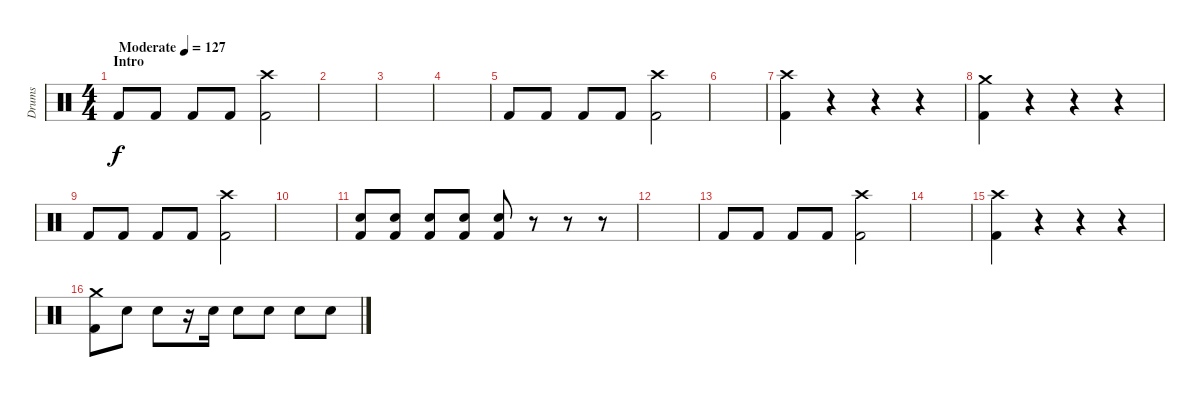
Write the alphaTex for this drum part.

\track ("Drums" "Drums") {instrument percussion}
\staff {score}
\articulation defaults
\ts (4 4)
\section ("" "Intro")
\tempo (127 "Moderate")
\clef neutral
\ks c "Kick (hit) 2".8{dy f} "Kick (hit) 2".8 "Kick (hit) 2".8 "Kick (hit) 2".8
("Crash high (hit)" "Kick (hit) 2").2 |
|
|
|
"Kick (hit) 2".8 "Kick (hit) 2".8 "Kick (hit) 2".8 "Kick (hit) 2".8 ("Crash high (hit)" "Kick (hit) 2").2 |
|
("Crash high (hit)" "Kick (hit) 2").4 r.4 r.4 r.4 |
("Crash medium (hit)" "Kick (hit) 2").4 r.4 r.4 r.4 |
"Kick (hit) 2".8 "Kick (hit) 2".8 "Kick (hit) 2".8 "Kick (hit) 2".8 ("Crash high (hit)" "Kick (hit) 2").2 |
|
("Electric Snare (hit)" "Kick (hit) 2").8 ("Electric Snare (hit)" "Kick (hit) 2").8 ("Electric Snare (hit)" "Kick (hit) 2").8 ("Electric Snare (hit)" "Kick (hit) 2").8 ("Electric Snare (hit)" "Kick (hit) 2").8 r.8 r.8 r.8 |
|
"Kick (hit) 2".8 "Kick (hit) 2".8 "Kick (hit) 2".8 "Kick (hit) 2".8 ("Crash high (hit)" "Kick (hit) 2").2 |
|
("Crash high (hit)" "Kick (hit) 2").4 r.4 r.4 r.4 |
("Crash medium (hit)" "Kick (hit) 2").8 "Electric Snare (hit)".8 "Electric Snare (hit)".8 r.16 "Electric Snare (hit)".16 "Electric Snare (hit)".8 "Electric Snare (hit)".8 "Electric Snare (hit)".8 "Electric Snare (hit)".8
